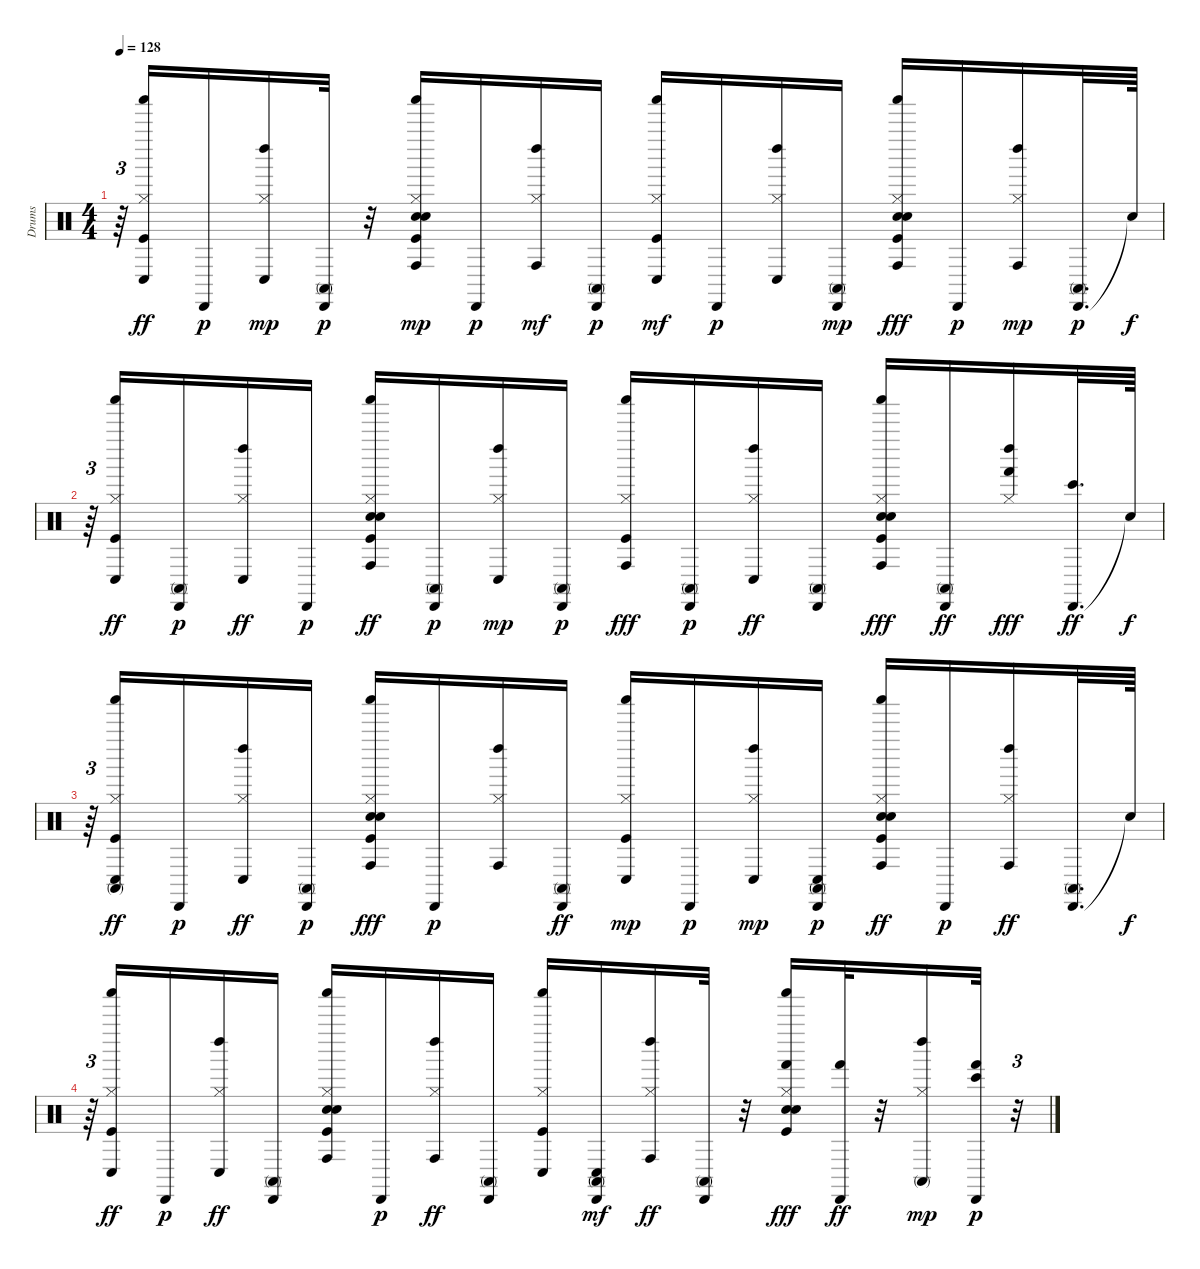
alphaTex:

\track ("Drums" "Drums") {instrument percussion}
\staff {score}
\articulation defaults
\ts (4 4)
\tempo 128
\clef neutral
\ks c
r.64{tu (3 2) dy f} ("Kick (hit)" "Hi-Hat (closed)" "Shaker (hit)" "Conga low (hit)").16{dy ff} "Cabasa (hit)".16{dy p} ("Hi-Hat (closed)" "Left Maraca (hit)" "Conga low (hit)").16{dy mp} ("Cabasa (hit)" "Conga high (mute)").32{dy p} r.32 ("Kick (hit)" "Electric Snare (hit)" "Hand Clap (hit)" "Hi-Hat (closed)" "Shaker (hit)" "Conga high (hit)").16{dy mp} "Cabasa (hit)".16{dy p} ("Hi-Hat (closed)" "Left Maraca (hit)" "Conga high (hit)").16{dy mf} ("Cabasa (hit)" "Conga high (mute)").16{dy p} ("Kick (hit)" "Hi-Hat (closed)" "Shaker (hit)" "Conga low (hit)").16{dy mf} "Cabasa (hit)".16{dy p} ("Hi-Hat (closed)" "Left Maraca (hit)" "Conga low (hit)").16 ("Cabasa (hit)" "Conga high (mute)").16{dy mp} ("Kick (hit)" "Electric Snare (hit)" "Hand Clap (hit)" "Hi-Hat (closed)" "Shaker (hit)" "Conga high (hit)").16{dy fff} "Cabasa (hit)".16{dy p} ("Hi-Hat (closed)" "Left Maraca (hit)" "Conga high (hit)").16{dy mp} ("Cabasa (hit)" "Conga high (mute)").32{d dy p} "Snare (hit)"{t}.64{dy f} |
r.64{tu (3 2)} ("Kick (hit)" "Hi-Hat (closed)" "Shaker (hit)" "Conga low (hit)").16{dy ff} ("Cabasa (hit)" "Conga high (mute)").16{dy p} ("Hi-Hat (closed)" "Left Maraca (hit)" "Conga low (hit)").16{dy ff} "Cabasa (hit)".16{dy p} ("Kick (hit)" "Electric Snare (hit)" "Hand Clap (hit)" "Hi-Hat (closed)" "Shaker (hit)" "Conga high (hit)").16{dy ff} ("Cabasa (hit)" "Conga high (mute)").16{dy p} ("Hi-Hat (closed)" "Left Maraca (hit)" "Conga low (hit)").16{dy mp} ("Cabasa (hit)" "Conga high (mute)").16{dy p} ("Kick (hit)" "Hi-Hat (closed)" "Shaker (hit)" "Conga high (hit)").16{dy fff} ("Cabasa (hit)" "Conga high (mute)").16{dy p} ("Hi-Hat (closed)" "Left Maraca (hit)" "Conga low (hit)").16{dy ff} ("Cabasa (hit)" "Conga high (mute)").16 ("Kick (hit)" "Electric Snare (hit)" "Hand Clap (hit)" "Hi-Hat (closed)" "Shaker (hit)" "Conga high (hit)").16{dy fff} ("Cabasa (hit)" "Conga high (mute)").16{dy ff} ("Hi-Hat (closed)" "Left Maraca (hit)" "Hand (hit)").16{dy fff} ("Cabasa (hit)" "Bongo High (hit)").32{d dy ff} "Snare (hit)"{t}.64{dy f} |
r.64{tu (3 2)} ("Kick (hit)" "Hi-Hat (closed)" "Shaker (hit)" "Conga low (hit)" "Conga high (mute)").16{dy ff} "Cabasa (hit)".16{dy p} ("Hi-Hat (closed)" "Left Maraca (hit)" "Conga low (hit)").16{dy ff} ("Cabasa (hit)" "Conga high (mute)").16{dy p} ("Kick (hit)" "Electric Snare (hit)" "Hand Clap (hit)" "Hi-Hat (closed)" "Shaker (hit)" "Conga high (hit)").16{dy fff} "Cabasa (hit)".16{dy p} ("Hi-Hat (closed)" "Left Maraca (hit)" "Conga high (hit)").16 ("Cabasa (hit)" "Conga high (mute)").16{dy ff} ("Kick (hit)" "Hi-Hat (closed)" "Shaker (hit)" "Conga low (hit)").16{dy mp} "Cabasa (hit)".16{dy p} ("Hi-Hat (closed)" "Left Maraca (hit)" "Conga low (hit)").16{dy mp} ("Cabasa (hit)" "Conga high (mute)" "Conga low (hit)").16{dy p} ("Kick (hit)" "Electric Snare (hit)" "Hand Clap (hit)" "Hi-Hat (closed)" "Shaker (hit)" "Conga high (hit)").16{dy ff} "Cabasa (hit)".16{dy p} ("Hi-Hat (closed)" "Left Maraca (hit)" "Conga high (hit)").16{dy ff} ("Cabasa (hit)" "Conga high (mute)").32{d} "Snare (hit)"{t}.64{dy f} |
r.64{tu (3 2)} ("Kick (hit)" "Hi-Hat (closed)" "Shaker (hit)" "Conga low (hit)").16{dy ff} "Cabasa (hit)".16{dy p} ("Hi-Hat (closed)" "Left Maraca (hit)" "Conga low (hit)").16{dy ff} ("Cabasa (hit)" "Conga high (mute)").16 ("Kick (hit)" "Electric Snare (hit)" "Hand Clap (hit)" "Hi-Hat (closed)" "Shaker (hit)" "Conga high (hit)").16 "Cabasa (hit)".16{dy p} ("Hi-Hat (closed)" "Left Maraca (hit)" "Conga high (hit)").16{dy ff} ("Cabasa (hit)" "Conga high (mute)").16 ("Kick (hit)" "Hi-Hat (closed)" "Shaker (hit)" "Conga low (hit)").16 ("Cabasa (hit)" "Conga high (mute)" "Conga low (hit)").16{dy mf} ("Hi-Hat (closed)" "Left Maraca (hit)" "Conga high (hit)").16{dy ff} ("Cabasa (hit)" "Conga high (mute)").32 r.32 ("Kick (hit)" "Electric Snare (hit)" "Hand Clap (hit)" "Hi-Hat (closed)" "Shaker (hit)" "Hand (hit)").16{dy fff} ("Cabasa (hit)" "Hand (hit)").32{dy ff} r.32 ("Hi-Hat (closed)" "Left Maraca (hit)" "Conga high (mute)").16{dy mp} ("Cabasa (hit)" "Hand (hit)" "Bongo High (hit)").32{dy p} r.32{tu (3 2)}
